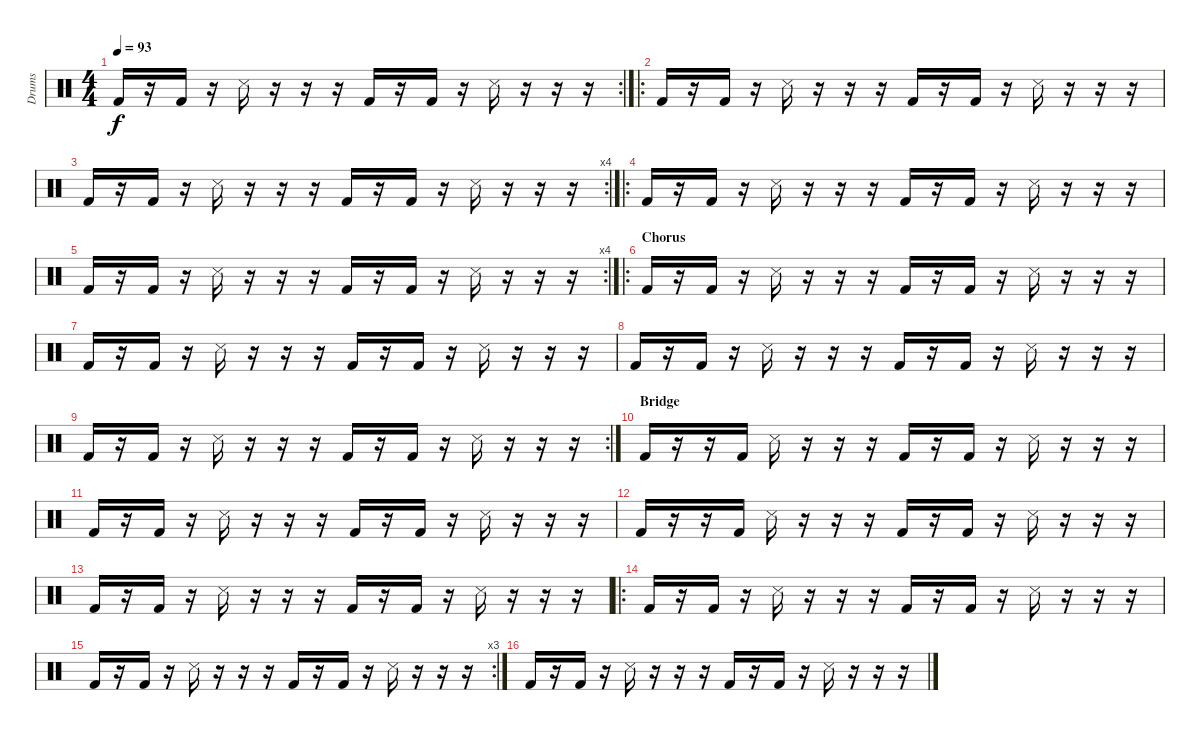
\track ("Drums" "Drums") {instrument percussion}
\staff {score}
\articulation defaults
\rc 2
\ts (4 4)
\tempo 93
\clef neutral
\ks c "Kick (hit) 2".16{dy f}
r.16 "Kick (hit) 2".16 r.16 "Metronome (hit)".16 r.16 r.16 r.16 "Kick (hit) 2".16 r.16 "Kick (hit) 2".16 r.16 "Metronome (hit)".16 r.16 r.16 r.16 |
\ro "Kick (hit) 2".16
r.16 "Kick (hit) 2".16 r.16 "Metronome (hit)".16 r.16 r.16 r.16 "Kick (hit) 2".16 r.16 "Kick (hit) 2".16 r.16 "Metronome (hit)".16 r.16 r.16 r.16 |
\rc 4 "Kick (hit) 2".16
r.16 "Kick (hit) 2".16 r.16 "Metronome (hit)".16 r.16 r.16 r.16 "Kick (hit) 2".16 r.16 "Kick (hit) 2".16 r.16 "Metronome (hit)".16 r.16 r.16 r.16 |
\ro "Kick (hit) 2".16
r.16 "Kick (hit) 2".16 r.16 "Metronome (hit)".16 r.16 r.16 r.16 "Kick (hit) 2".16 r.16 "Kick (hit) 2".16 r.16 "Metronome (hit)".16 r.16 r.16 r.16 |
\rc 4 "Kick (hit) 2".16
r.16 "Kick (hit) 2".16 r.16 "Metronome (hit)".16 r.16 r.16 r.16 "Kick (hit) 2".16 r.16 "Kick (hit) 2".16 r.16 "Metronome (hit)".16 r.16 r.16 r.16 |
\ro
\section ("" "Chorus")
"Kick (hit) 2".16 r.16 "Kick (hit) 2".16 r.16 "Metronome (hit)".16 r.16 r.16 r.16 "Kick (hit) 2".16 r.16 "Kick (hit) 2".16 r.16 "Metronome (hit)".16 r.16 r.16 r.16 |
"Kick (hit) 2".16 r.16 "Kick (hit) 2".16 r.16 "Metronome (hit)".16 r.16 r.16 r.16 "Kick (hit) 2".16 r.16 "Kick (hit) 2".16 r.16 "Metronome (hit)".16 r.16 r.16 r.16 |
"Kick (hit) 2".16 r.16 "Kick (hit) 2".16 r.16 "Metronome (hit)".16 r.16 r.16 r.16 "Kick (hit) 2".16 r.16 "Kick (hit) 2".16 r.16 "Metronome (hit)".16 r.16 r.16 r.16 |
\rc 2 "Kick (hit) 2".16
r.16 "Kick (hit) 2".16 r.16 "Metronome (hit)".16 r.16 r.16 r.16 "Kick (hit) 2".16 r.16 "Kick (hit) 2".16 r.16 "Metronome (hit)".16 r.16 r.16 r.16 |
\section ("" "Bridge")
"Kick (hit) 2".16 r.16 r.16 "Kick (hit) 2".16 "Metronome (hit)".16 r.16 r.16 r.16 "Kick (hit) 2".16 r.16 "Kick (hit) 2".16 r.16 "Metronome (hit)".16 r.16 r.16 r.16 |
"Kick (hit) 2".16 r.16 "Kick (hit) 2".16 r.16 "Metronome (hit)".16 r.16 r.16 r.16 "Kick (hit) 2".16 r.16 "Kick (hit) 2".16 r.16 "Metronome (hit)".16 r.16 r.16 r.16 |
"Kick (hit) 2".16 r.16 r.16 "Kick (hit) 2".16 "Metronome (hit)".16 r.16 r.16 r.16 "Kick (hit) 2".16 r.16 "Kick (hit) 2".16 r.16 "Metronome (hit)".16 r.16 r.16 r.16 |
"Kick (hit) 2".16 r.16 "Kick (hit) 2".16 r.16 "Metronome (hit)".16 r.16 r.16 r.16 "Kick (hit) 2".16 r.16 "Kick (hit) 2".16 r.16 "Metronome (hit)".16 r.16 r.16 r.16 |
\ro "Kick (hit) 2".16
r.16 "Kick (hit) 2".16 r.16 "Metronome (hit)".16 r.16 r.16 r.16 "Kick (hit) 2".16 r.16 "Kick (hit) 2".16 r.16 "Metronome (hit)".16 r.16 r.16 r.16 |
\rc 3 "Kick (hit) 2".16
r.16 "Kick (hit) 2".16 r.16 "Metronome (hit)".16 r.16 r.16 r.16 "Kick (hit) 2".16 r.16 "Kick (hit) 2".16 r.16 "Metronome (hit)".16 r.16 r.16 r.16 |
"Kick (hit) 2".16 r.16 "Kick (hit) 2".16 r.16 "Metronome (hit)".16 r.16 r.16 r.16 "Kick (hit) 2".16 r.16 "Kick (hit) 2".16 r.16 "Metronome (hit)".16 r.16 r.16 r.16
